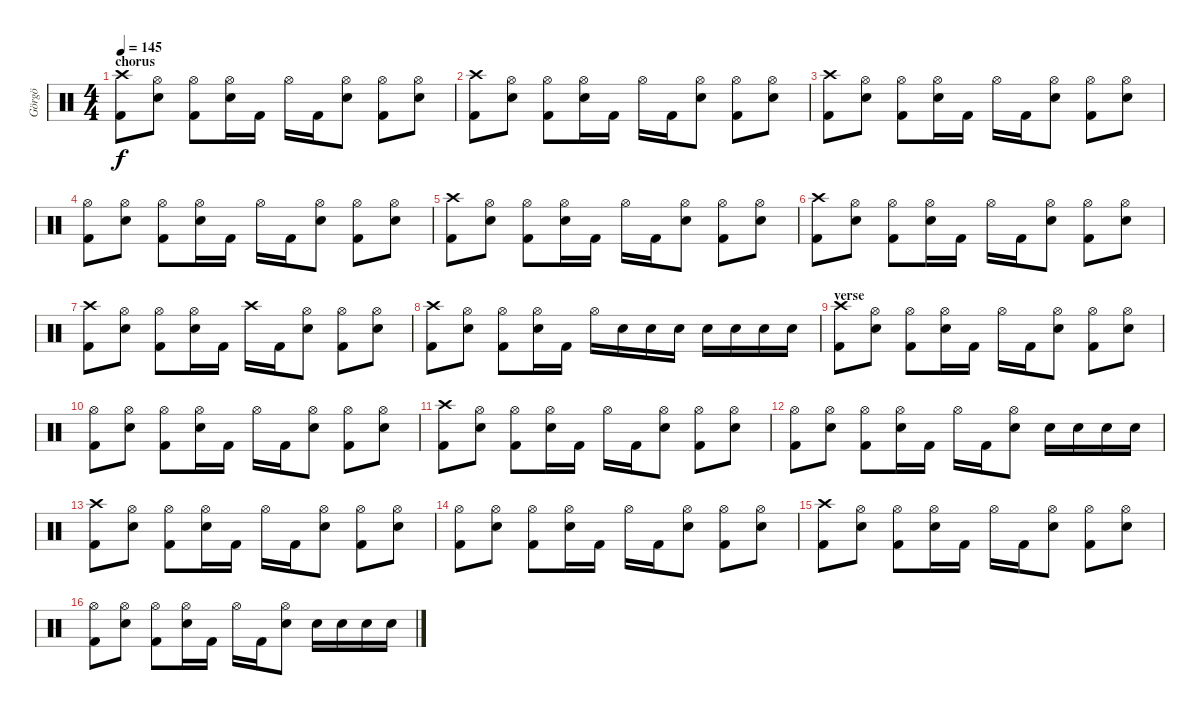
\track ("Görgö" "Görgö") {instrument percussion}
\staff {score}
\articulation defaults
\ts (4 4)
\section ("" "chorus")
\tempo 145
\clef neutral
\ks c
("Crash high (hit)" "Kick (hit) 2").8{dy f} ("Hi-Hat (open)" "Snare (hit) 2").8 ("Hi-Hat (open)" "Kick (hit) 2").8 ("Hi-Hat (open)" "Snare (hit) 2").16 "Kick (hit) 2".16 "Hi-Hat (open)".16 "Kick (hit) 2".16 ("Hi-Hat (open)" "Snare (hit) 2").8 ("Hi-Hat (open)" "Kick (hit) 2").8 ("Hi-Hat (open)" "Snare (hit) 2").8 |
("Crash high (hit)" "Kick (hit) 2").8 ("Hi-Hat (open)" "Snare (hit) 2").8 ("Hi-Hat (open)" "Kick (hit) 2").8 ("Hi-Hat (open)" "Snare (hit) 2").16 "Kick (hit) 2".16 "Hi-Hat (open)".16 "Kick (hit) 2".16 ("Hi-Hat (open)" "Snare (hit) 2").8 ("Hi-Hat (open)" "Kick (hit) 2").8 ("Hi-Hat (open)" "Snare (hit) 2").8 |
("Crash high (hit)" "Kick (hit) 2").8 ("Hi-Hat (open)" "Snare (hit) 2").8 ("Hi-Hat (open)" "Kick (hit) 2").8 ("Hi-Hat (open)" "Snare (hit) 2").16 "Kick (hit) 2".16 "Hi-Hat (open)".16 "Kick (hit) 2".16 ("Hi-Hat (open)" "Snare (hit) 2").8 ("Hi-Hat (open)" "Kick (hit) 2").8 ("Hi-Hat (open)" "Snare (hit) 2").8 |
("Hi-Hat (open)" "Kick (hit) 2").8 ("Hi-Hat (open)" "Snare (hit) 2").8 ("Hi-Hat (open)" "Kick (hit) 2").8 ("Hi-Hat (open)" "Snare (hit) 2").16 "Kick (hit) 2".16 "Hi-Hat (open)".16 "Kick (hit) 2".16 ("Hi-Hat (open)" "Snare (hit) 2").8 ("Hi-Hat (open)" "Kick (hit) 2").8 ("Hi-Hat (open)" "Snare (hit) 2").8 |
("Crash high (hit)" "Kick (hit) 2").8 ("Hi-Hat (open)" "Snare (hit) 2").8 ("Hi-Hat (open)" "Kick (hit) 2").8 ("Hi-Hat (open)" "Snare (hit) 2").16 "Kick (hit) 2".16 "Hi-Hat (open)".16 "Kick (hit) 2".16 ("Hi-Hat (open)" "Snare (hit) 2").8 ("Hi-Hat (open)" "Kick (hit) 2").8 ("Hi-Hat (open)" "Snare (hit) 2").8 |
("Crash high (hit)" "Kick (hit) 2").8 ("Hi-Hat (open)" "Snare (hit) 2").8 ("Hi-Hat (open)" "Kick (hit) 2").8 ("Hi-Hat (open)" "Snare (hit) 2").16 "Kick (hit) 2".16 "Hi-Hat (open)".16 "Kick (hit) 2".16 ("Hi-Hat (open)" "Snare (hit) 2").8 ("Hi-Hat (open)" "Kick (hit) 2").8 ("Hi-Hat (open)" "Snare (hit) 2").8 |
("Crash high (hit)" "Kick (hit) 2").8 ("Hi-Hat (open)" "Snare (hit) 2").8 ("Hi-Hat (open)" "Kick (hit) 2").8 ("Hi-Hat (open)" "Snare (hit) 2").16 "Kick (hit) 2".16 "Crash high (hit)".16 "Kick (hit) 2".16 ("Hi-Hat (open)" "Snare (hit) 2").8 ("Hi-Hat (open)" "Kick (hit) 2").8 ("Hi-Hat (open)" "Snare (hit) 2").8 |
("Crash high (hit)" "Kick (hit) 2").8 ("Hi-Hat (open)" "Snare (hit) 2").8 ("Hi-Hat (open)" "Kick (hit) 2").8 ("Hi-Hat (open)" "Snare (hit) 2").16 "Kick (hit) 2".16 "Hi-Hat (open)".16 "Snare (hit) 2".16 "Snare (hit) 2".16 "Snare (hit) 2".16 "Snare (hit) 2".16 "Snare (hit) 2".16 "Snare (hit) 2".16 "Snare (hit) 2".16 |
\section ("" "verse")
("Crash high (hit)" "Kick (hit) 2").8 ("Hi-Hat (open)" "Snare (hit) 2").8 ("Hi-Hat (open)" "Kick (hit) 2").8 ("Hi-Hat (open)" "Snare (hit) 2").16 "Kick (hit) 2".16 "Hi-Hat (open)".16 "Kick (hit) 2".16 ("Hi-Hat (open)" "Snare (hit) 2").8 ("Hi-Hat (open)" "Kick (hit) 2").8 ("Hi-Hat (open)" "Snare (hit) 2").8 |
("Hi-Hat (open)" "Kick (hit) 2").8 ("Hi-Hat (open)" "Snare (hit) 2").8 ("Hi-Hat (open)" "Kick (hit) 2").8 ("Hi-Hat (open)" "Snare (hit) 2").16 "Kick (hit) 2".16 "Hi-Hat (open)".16 "Kick (hit) 2".16 ("Hi-Hat (open)" "Snare (hit) 2").8 ("Hi-Hat (open)" "Kick (hit) 2").8 ("Hi-Hat (open)" "Snare (hit) 2").8 |
("Crash high (hit)" "Kick (hit) 2").8 ("Hi-Hat (open)" "Snare (hit) 2").8 ("Hi-Hat (open)" "Kick (hit) 2").8 ("Hi-Hat (open)" "Snare (hit) 2").16 "Kick (hit) 2".16 "Hi-Hat (open)".16 "Kick (hit) 2".16 ("Hi-Hat (open)" "Snare (hit) 2").8 ("Hi-Hat (open)" "Kick (hit) 2").8 ("Hi-Hat (open)" "Snare (hit) 2").8 |
("Hi-Hat (open)" "Kick (hit) 2").8 ("Hi-Hat (open)" "Snare (hit) 2").8 ("Hi-Hat (open)" "Kick (hit) 2").8 ("Hi-Hat (open)" "Snare (hit) 2").16 "Kick (hit) 2".16 "Hi-Hat (open)".16 "Kick (hit) 2".16 ("Hi-Hat (open)" "Snare (hit) 2").8 "Snare (hit) 2".16 "Snare (hit) 2".16 "Snare (hit) 2".16 "Snare (hit) 2".16 |
("Crash high (hit)" "Kick (hit) 2").8 ("Hi-Hat (open)" "Snare (hit) 2").8 ("Hi-Hat (open)" "Kick (hit) 2").8 ("Hi-Hat (open)" "Snare (hit) 2").16 "Kick (hit) 2".16 "Hi-Hat (open)".16 "Kick (hit) 2".16 ("Hi-Hat (open)" "Snare (hit) 2").8 ("Hi-Hat (open)" "Kick (hit) 2").8 ("Hi-Hat (open)" "Snare (hit) 2").8 |
("Hi-Hat (open)" "Kick (hit) 2").8 ("Hi-Hat (open)" "Snare (hit) 2").8 ("Hi-Hat (open)" "Kick (hit) 2").8 ("Hi-Hat (open)" "Snare (hit) 2").16 "Kick (hit) 2".16 "Hi-Hat (open)".16 "Kick (hit) 2".16 ("Hi-Hat (open)" "Snare (hit) 2").8 ("Hi-Hat (open)" "Kick (hit) 2").8 ("Hi-Hat (open)" "Snare (hit) 2").8 |
("Crash high (hit)" "Kick (hit) 2").8 ("Hi-Hat (open)" "Snare (hit) 2").8 ("Hi-Hat (open)" "Kick (hit) 2").8 ("Hi-Hat (open)" "Snare (hit) 2").16 "Kick (hit) 2".16 "Hi-Hat (open)".16 "Kick (hit) 2".16 ("Hi-Hat (open)" "Snare (hit) 2").8 ("Hi-Hat (open)" "Kick (hit) 2").8 ("Hi-Hat (open)" "Snare (hit) 2").8 |
("Hi-Hat (open)" "Kick (hit) 2").8 ("Hi-Hat (open)" "Snare (hit) 2").8 ("Hi-Hat (open)" "Kick (hit) 2").8 ("Hi-Hat (open)" "Snare (hit) 2").16 "Kick (hit) 2".16 "Hi-Hat (open)".16 "Kick (hit) 2".16 ("Hi-Hat (open)" "Snare (hit) 2").8 "Snare (hit) 2".16 "Snare (hit) 2".16 "Snare (hit) 2".16 "Snare (hit) 2".16
